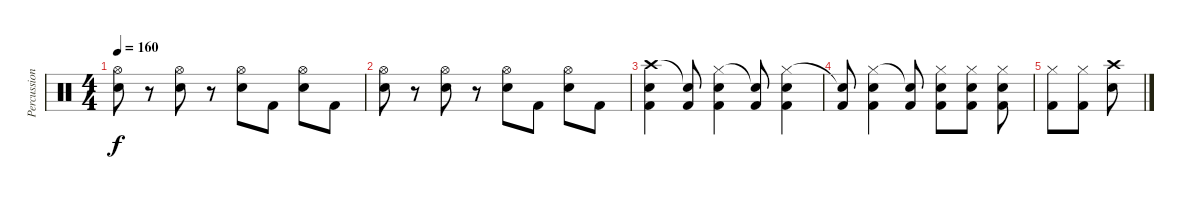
\track ("Percussion" "Percussion") {instrument percussion}
\staff {score}
\articulation defaults
\ts (4 4)
\tempo 160
\clef neutral
\ks c
("Hi-Hat (open)" "Electric Snare (hit)").8{dy f} r.8 ("Hi-Hat (open)" "Electric Snare (hit)").8 r.8 ("Hi-Hat (open)" "Electric Snare (hit)").8 "Kick (hit) 2".8 ("Hi-Hat (open)" "Electric Snare (hit)").8 "Kick (hit) 2".8 |
("Hi-Hat (open)" "Electric Snare (hit)").8 r.8 ("Hi-Hat (open)" "Electric Snare (hit)").8 r.8 ("Hi-Hat (open)" "Electric Snare (hit)").8 "Kick (hit) 2".8 ("Hi-Hat (open)" "Electric Snare (hit)").8 "Kick (hit) 2".8 |
("Crash high (hit)" "Electric Snare (hit)" "Kick (hit) 2").4 ("Snare (hit)"{t} "Kick (hit) 2").8 ("Hi-Hat (closed)" "Electric Snare (hit)" "Kick (hit) 2").4 ("Snare (hit)"{t} "Kick (hit) 2").8 ("Hi-Hat (closed)" "Electric Snare (hit)" "Kick (hit) 2").4 |
("Snare (hit)"{t} "Kick (hit) 2").8 ("Hi-Hat (closed)" "Electric Snare (hit)" "Kick (hit) 2").4 ("Snare (hit)"{t} "Kick (hit) 2").8 ("Hi-Hat (closed)" "Electric Snare (hit)" "Kick (hit) 2").8 ("Hi-Hat (closed)" "Electric Snare (hit)" "Kick (hit) 2").8 ("Hi-Hat (closed)" "Electric Snare (hit)" "Kick (hit) 2").8 |
("Hi-Hat (closed)" "Kick (hit) 2").8 ("Hi-Hat (closed)" "Kick (hit) 2").8 ("Crash high (hit)" "Electric Snare (hit)").8
